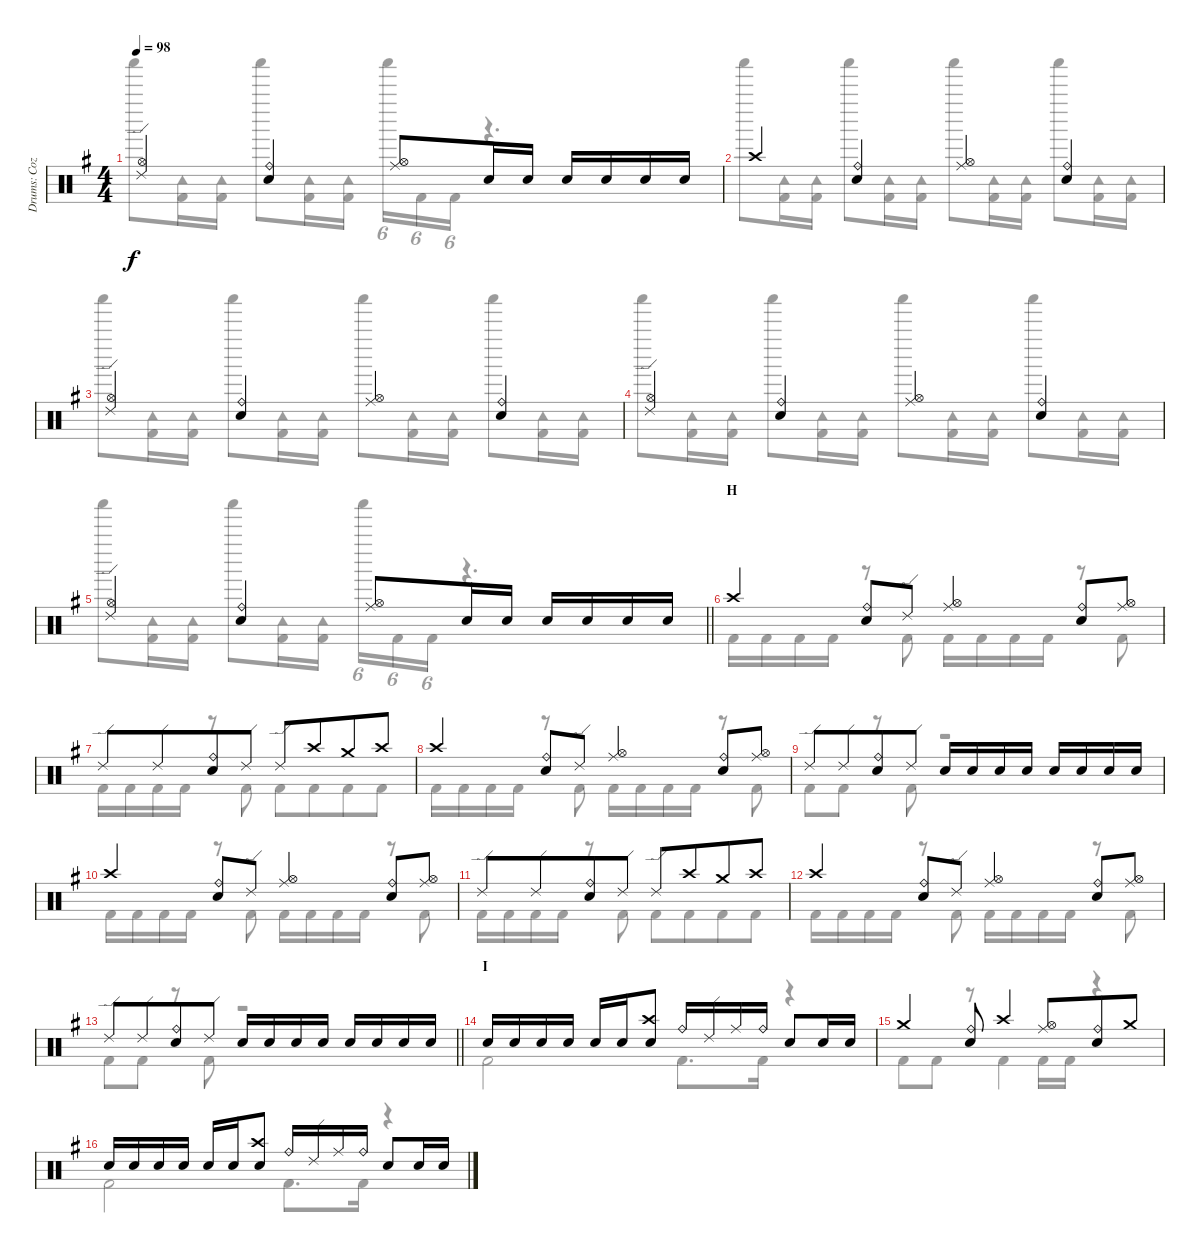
\track ("Drums: Cozy" "Drums: Coz") {instrument percussion}
\staff {score}
\articulation defaults
\voice
\ts (4 4)
\tempo 98
\clef neutral
\ks g
("Ride (edge) 2" "Hi-Hat (open)").4{dy f} ("Ride (bell)" "Snare (hit) 2").4 ("Ride (middle)" "Hi-Hat (open)").8 "Snare (hit) 2".16{beam merge} "Snare (hit) 2".16 "Snare (hit) 2".16 "Snare (hit) 2".16{beam merge} "Snare (hit) 2".16 "Snare (hit) 2".16 |
"Crash high (hit)".4 ("Ride (bell)" "Snare (hit) 2").4 ("Ride (middle)" "Hi-Hat (open)").4 ("Ride (bell)" "Snare (hit) 2").4 |
("Ride (edge) 2" "Hi-Hat (open)").4 ("Ride (bell)" "Snare (hit) 2").4 ("Ride (middle)" "Hi-Hat (open)").4 ("Ride (bell)" "Snare (hit) 2").4 |
("Ride (edge) 2" "Hi-Hat (open)").4 ("Ride (bell)" "Snare (hit) 2").4 ("Ride (middle)" "Hi-Hat (open)").4 ("Ride (bell)" "Snare (hit) 2").4 |
\barLineRight lightlight
("Ride (edge) 2" "Hi-Hat (open)").4 ("Ride (bell)" "Snare (hit) 2").4 ("Ride (middle)" "Hi-Hat (open)").8 "Snare (hit) 2".16{beam merge} "Snare (hit) 2".16 "Snare (hit) 2".16 "Snare (hit) 2".16{beam merge} "Snare (hit) 2".16 "Snare (hit) 2".16 |
\section ("" "H")
"Crash high (hit)".4 ("Ride (bell)" "Snare (hit) 2").8 "Ride (edge) 2".8 ("Ride (middle)" "Hi-Hat (open)").4 ("Ride (bell)" "Snare (hit) 2").8 ("Ride (middle)" "Hi-Hat (open)").8 |
"Ride (edge) 2".8 "Ride (edge) 2".8{beam merge} ("Ride (bell)" "Snare (hit) 2").8 "Ride (edge) 2".8 "Ride (edge) 2".8 "Crash high (hit)".8{beam merge} "Crash medium (hit)".8 "Crash high (hit)".8 |
"Crash high (hit)".4 ("Ride (bell)" "Snare (hit) 2").8 "Ride (edge) 2".8 ("Ride (middle)" "Hi-Hat (open)").4 ("Ride (bell)" "Snare (hit) 2").8 ("Ride (middle)" "Hi-Hat (open)").8 |
"Ride (edge) 2".8 "Ride (edge) 2".8{beam merge} ("Ride (bell)" "Snare (hit) 2").8 "Ride (edge) 2".8 "Snare (hit) 2".16 "Snare (hit) 2".16{beam merge} "Snare (hit) 2".16 "Snare (hit) 2".16 "Snare (hit) 2".16 "Snare (hit) 2".16{beam merge} "Snare (hit) 2".16 "Snare (hit) 2".16 |
"Crash high (hit)".4 ("Ride (bell)" "Snare (hit) 2").8 "Ride (edge) 2".8 ("Ride (middle)" "Hi-Hat (open)").4 ("Ride (bell)" "Snare (hit) 2").8 ("Ride (middle)" "Hi-Hat (open)").8 |
"Ride (edge) 2".8 "Ride (edge) 2".8{beam merge} ("Ride (bell)" "Snare (hit) 2").8 "Ride (edge) 2".8 "Ride (edge) 2".8 "Crash high (hit)".8{beam merge} "Crash medium (hit)".8 "Crash high (hit)".8 |
"Crash high (hit)".4 ("Ride (bell)" "Snare (hit) 2").8 "Ride (edge) 2".8 ("Ride (middle)" "Hi-Hat (open)").4 ("Ride (bell)" "Snare (hit) 2").8 ("Ride (middle)" "Hi-Hat (open)").8 |
\barLineRight lightlight "Ride (edge) 2".8 "Ride (edge) 2".8{beam merge}
("Ride (bell)" "Snare (hit) 2").8 "Ride (edge) 2".8 "Snare (hit) 2".16 "Snare (hit) 2".16{beam merge} "Snare (hit) 2".16 "Snare (hit) 2".16 "Snare (hit) 2".16 "Snare (hit) 2".16{beam merge} "Snare (hit) 2".16 "Snare (hit) 2".16 |
\section ("" "I")
"Snare (hit) 2".16 "Snare (hit) 2".16 "Snare (hit) 2".16 "Snare (hit) 2".16 "Snare (hit) 2".16 "Snare (hit) 2".16 ("Crash high (hit)" "Snare (hit) 2").8 "Ride (bell)".16 "Ride (edge) 2".16 "Ride (middle)".16 "Ride (bell)".16 "Snare (hit) 2".8 "Snare (hit) 2".16 "Snare (hit) 2".16 |
"Crash medium (hit)".4 ("Ride (bell)" "Snare (hit) 2").8 "Crash high (hit)".4 ("Ride (middle)" "Hi-Hat (open)").8{beam merge} ("Ride (bell)" "Snare (hit) 2").8 "Crash medium (hit)".8 |
"Snare (hit) 2".16 "Snare (hit) 2".16 "Snare (hit) 2".16 "Snare (hit) 2".16 "Snare (hit) 2".16 "Snare (hit) 2".16 ("Crash high (hit)" "Snare (hit) 2").8 "Ride (bell)".16 "Ride (edge) 2".16 "Ride (middle)".16 "Ride (bell)".16 "Snare (hit) 2".8 "Snare (hit) 2".16 "Snare (hit) 2".16
\voice
\clef neutral
\ottava regular
\simile none
\ks g "Shaker (hit)".8{dy f}
("Tambourine (hit)" "Kick (hit) 2").16 ("Tambourine (hit)" "Kick (hit) 2").16 "Shaker (hit)".8 ("Tambourine (hit)" "Kick (hit) 2").16 ("Tambourine (hit)" "Kick (hit) 2").16 "Shaker (hit)".16{tu (6 4)} "Kick (hit) 2".16{tu (6 4)} "Kick (hit) 2".16{tu (6 4)} r.4{d} |
"Shaker (hit)".8 ("Tambourine (hit)" "Kick (hit) 2").16 ("Tambourine (hit)" "Kick (hit) 2").16 "Shaker (hit)".8 ("Tambourine (hit)" "Kick (hit) 2").16 ("Tambourine (hit)" "Kick (hit) 2").16 "Shaker (hit)".8 ("Tambourine (hit)" "Kick (hit) 2").16 ("Tambourine (hit)" "Kick (hit) 2").16 "Shaker (hit)".8 ("Tambourine (hit)" "Kick (hit) 2").16 ("Tambourine (hit)" "Kick (hit) 2").16 |
"Shaker (hit)".8 ("Tambourine (hit)" "Kick (hit) 2").16 ("Tambourine (hit)" "Kick (hit) 2").16 "Shaker (hit)".8 ("Tambourine (hit)" "Kick (hit) 2").16 ("Tambourine (hit)" "Kick (hit) 2").16 "Shaker (hit)".8 ("Tambourine (hit)" "Kick (hit) 2").16 ("Tambourine (hit)" "Kick (hit) 2").16 "Shaker (hit)".8 ("Tambourine (hit)" "Kick (hit) 2").16 ("Tambourine (hit)" "Kick (hit) 2").16 |
"Shaker (hit)".8 ("Tambourine (hit)" "Kick (hit) 2").16 ("Tambourine (hit)" "Kick (hit) 2").16 "Shaker (hit)".8 ("Tambourine (hit)" "Kick (hit) 2").16 ("Tambourine (hit)" "Kick (hit) 2").16 "Shaker (hit)".8 ("Tambourine (hit)" "Kick (hit) 2").16 ("Tambourine (hit)" "Kick (hit) 2").16 "Shaker (hit)".8 ("Tambourine (hit)" "Kick (hit) 2").16 ("Tambourine (hit)" "Kick (hit) 2").16 |
\barLineRight lightlight "Shaker (hit)".8
("Tambourine (hit)" "Kick (hit) 2").16 ("Tambourine (hit)" "Kick (hit) 2").16 "Shaker (hit)".8 ("Tambourine (hit)" "Kick (hit) 2").16 ("Tambourine (hit)" "Kick (hit) 2").16 "Shaker (hit)".16{tu (6 4)} "Kick (hit) 2".16{tu (6 4)} "Kick (hit) 2".16{tu (6 4)} r.4{d} |
"Kick (hit) 2".16 "Kick (hit) 2".16 "Kick (hit) 2".16 "Kick (hit) 2".16 r.8 "Kick (hit) 2".8 "Kick (hit) 2".16 "Kick (hit) 2".16 "Kick (hit) 2".16 "Kick (hit) 2".16 r.8 "Kick (hit) 2".8 |
"Kick (hit) 2".16 "Kick (hit) 2".16 "Kick (hit) 2".16 "Kick (hit) 2".16 r.8{beam merge} "Kick (hit) 2".8 "Kick (hit) 2".8 "Kick (hit) 2".8{beam merge} "Kick (hit) 2".8 "Kick (hit) 2".8 |
"Kick (hit) 2".16 "Kick (hit) 2".16 "Kick (hit) 2".16 "Kick (hit) 2".16 r.8 "Kick (hit) 2".8 "Kick (hit) 2".16 "Kick (hit) 2".16 "Kick (hit) 2".16 "Kick (hit) 2".16 r.8 "Kick (hit) 2".8 |
"Kick (hit) 2".8 "Kick (hit) 2".8 r.8 "Kick (hit) 2".8 r.2 |
"Kick (hit) 2".16 "Kick (hit) 2".16 "Kick (hit) 2".16 "Kick (hit) 2".16 r.8 "Kick (hit) 2".8 "Kick (hit) 2".16 "Kick (hit) 2".16 "Kick (hit) 2".16 "Kick (hit) 2".16 r.8 "Kick (hit) 2".8 |
"Kick (hit) 2".16 "Kick (hit) 2".16 "Kick (hit) 2".16 "Kick (hit) 2".16 r.8{beam merge} "Kick (hit) 2".8 "Kick (hit) 2".8 "Kick (hit) 2".8{beam merge} "Kick (hit) 2".8 "Kick (hit) 2".8 |
"Kick (hit) 2".16 "Kick (hit) 2".16 "Kick (hit) 2".16 "Kick (hit) 2".16 r.8 "Kick (hit) 2".8 "Kick (hit) 2".16 "Kick (hit) 2".16 "Kick (hit) 2".16 "Kick (hit) 2".16 r.8 "Kick (hit) 2".8 |
\barLineRight lightlight "Kick (hit) 2".8 "Kick (hit) 2".8
r.8 "Kick (hit) 2".8 r.2 |
"Kick (hit) 2".2 "Kick (hit) 2".8{d} "Kick (hit) 2".16 r.4 |
"Kick (hit) 2".8 "Kick (hit) 2".8 r.8 "Kick (hit) 2".4 "Kick (hit) 2".16 "Kick (hit) 2".16 r.4 |
"Kick (hit) 2".2 "Kick (hit) 2".8{d} "Kick (hit) 2".16 r.4
